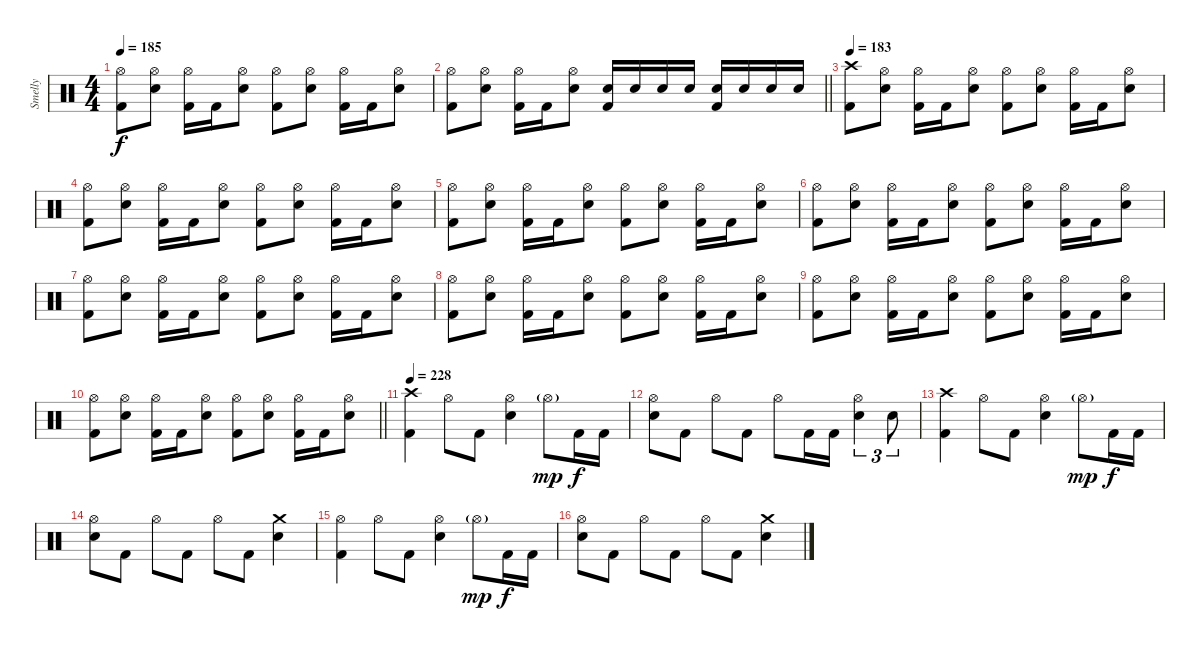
\track ("Smelly" "Smelly") {instrument percussion}
\staff {score}
\articulation defaults
\ts (4 4)
\tempo 185
\clef neutral
\ks c
("Hi-Hat (open)" "Kick (hit) 2").8{dy f} ("Hi-Hat (open)" "Electric Snare (hit)").8 ("Hi-Hat (open)" "Kick (hit) 2").16 "Kick (hit) 2".16 ("Hi-Hat (open)" "Electric Snare (hit)").8 ("Hi-Hat (open)" "Kick (hit) 2").8 ("Hi-Hat (open)" "Electric Snare (hit)").8 ("Hi-Hat (open)" "Kick (hit) 2").16 "Kick (hit) 2".16 ("Hi-Hat (open)" "Electric Snare (hit)").8 |
\barLineRight lightlight
("Hi-Hat (open)" "Kick (hit) 2").8 ("Hi-Hat (open)" "Electric Snare (hit)").8 ("Hi-Hat (open)" "Kick (hit) 2").16 "Kick (hit) 2".16 ("Hi-Hat (open)" "Electric Snare (hit)").8 ("Electric Snare (hit)" "Kick (hit) 2").16 "Electric Snare (hit)".16 "Electric Snare (hit)".16 "Electric Snare (hit)".16 ("Electric Snare (hit)" "Kick (hit) 2").16 "Electric Snare (hit)".16 "Electric Snare (hit)".16 "Electric Snare (hit)".16 |
\section ("" "")
\tempo 183
("Crash high (hit)" "Kick (hit) 2").8 ("Hi-Hat (open)" "Electric Snare (hit)").8 ("Hi-Hat (open)" "Kick (hit) 2").16 "Kick (hit) 2".16 ("Hi-Hat (open)" "Electric Snare (hit)").8 ("Hi-Hat (open)" "Kick (hit) 2").8 ("Hi-Hat (open)" "Electric Snare (hit)").8 ("Hi-Hat (open)" "Kick (hit) 2").16 "Kick (hit) 2".16 ("Hi-Hat (open)" "Electric Snare (hit)").8 |
("Hi-Hat (open)" "Kick (hit) 2").8 ("Hi-Hat (open)" "Electric Snare (hit)").8 ("Hi-Hat (open)" "Kick (hit) 2").16 "Kick (hit) 2".16 ("Hi-Hat (open)" "Electric Snare (hit)").8 ("Hi-Hat (open)" "Kick (hit) 2").8 ("Hi-Hat (open)" "Electric Snare (hit)").8 ("Hi-Hat (open)" "Kick (hit) 2").16 "Kick (hit) 2".16 ("Hi-Hat (open)" "Electric Snare (hit)").8 |
("Hi-Hat (open)" "Kick (hit) 2").8 ("Hi-Hat (open)" "Electric Snare (hit)").8 ("Hi-Hat (open)" "Kick (hit) 2").16 "Kick (hit) 2".16 ("Hi-Hat (open)" "Electric Snare (hit)").8 ("Hi-Hat (open)" "Kick (hit) 2").8 ("Hi-Hat (open)" "Electric Snare (hit)").8 ("Hi-Hat (open)" "Kick (hit) 2").16 "Kick (hit) 2".16 ("Hi-Hat (open)" "Electric Snare (hit)").8 |
("Hi-Hat (open)" "Kick (hit) 2").8 ("Hi-Hat (open)" "Electric Snare (hit)").8 ("Hi-Hat (open)" "Kick (hit) 2").16 "Kick (hit) 2".16 ("Hi-Hat (open)" "Electric Snare (hit)").8 ("Hi-Hat (open)" "Kick (hit) 2").8 ("Hi-Hat (open)" "Electric Snare (hit)").8 ("Hi-Hat (open)" "Kick (hit) 2").16 "Kick (hit) 2".16 ("Hi-Hat (open)" "Electric Snare (hit)").8 |
("Hi-Hat (open)" "Kick (hit) 2").8 ("Hi-Hat (open)" "Electric Snare (hit)").8 ("Hi-Hat (open)" "Kick (hit) 2").16 "Kick (hit) 2".16 ("Hi-Hat (open)" "Electric Snare (hit)").8 ("Hi-Hat (open)" "Kick (hit) 2").8 ("Hi-Hat (open)" "Electric Snare (hit)").8 ("Hi-Hat (open)" "Kick (hit) 2").16 "Kick (hit) 2".16 ("Hi-Hat (open)" "Electric Snare (hit)").8 |
("Hi-Hat (open)" "Kick (hit) 2").8 ("Hi-Hat (open)" "Electric Snare (hit)").8 ("Hi-Hat (open)" "Kick (hit) 2").16 "Kick (hit) 2".16 ("Hi-Hat (open)" "Electric Snare (hit)").8 ("Hi-Hat (open)" "Kick (hit) 2").8 ("Hi-Hat (open)" "Electric Snare (hit)").8 ("Hi-Hat (open)" "Kick (hit) 2").16 "Kick (hit) 2".16 ("Hi-Hat (open)" "Electric Snare (hit)").8 |
("Hi-Hat (open)" "Kick (hit) 2").8 ("Hi-Hat (open)" "Electric Snare (hit)").8 ("Hi-Hat (open)" "Kick (hit) 2").16 "Kick (hit) 2".16 ("Hi-Hat (open)" "Electric Snare (hit)").8 ("Hi-Hat (open)" "Kick (hit) 2").8 ("Hi-Hat (open)" "Electric Snare (hit)").8 ("Hi-Hat (open)" "Kick (hit) 2").16 "Kick (hit) 2".16 ("Hi-Hat (open)" "Electric Snare (hit)").8 |
\barLineRight lightlight
("Hi-Hat (open)" "Kick (hit) 2").8 ("Hi-Hat (open)" "Electric Snare (hit)").8 ("Hi-Hat (open)" "Kick (hit) 2").16 "Kick (hit) 2".16 ("Hi-Hat (open)" "Electric Snare (hit)").8 ("Hi-Hat (open)" "Kick (hit) 2").8 ("Hi-Hat (open)" "Electric Snare (hit)").8 ("Hi-Hat (open)" "Kick (hit) 2").16 "Kick (hit) 2".16 ("Hi-Hat (open)" "Electric Snare (hit)").8 |
\section ("" "")
\tempo 228
("Crash high (hit)" "Kick (hit) 2").4 "Hi-Hat (open)".8 "Kick (hit) 2".8 ("Hi-Hat (open)" "Electric Snare (hit)").4 "Hi-Hat (open)"{g}.8{dy mp} "Kick (hit) 2".16{dy f} "Kick (hit) 2".16 |
("Hi-Hat (open)" "Electric Snare (hit)").8 "Kick (hit) 2".8 "Hi-Hat (open)".8 "Kick (hit) 2".8 "Hi-Hat (open)".8 "Kick (hit) 2".16 "Kick (hit) 2".16 ("Hi-Hat (open)" "Electric Snare (hit)").4{tu (3 2)} "Electric Snare (hit)".8{tu (3 2)} |
("Crash high (hit)" "Kick (hit) 2").4 "Hi-Hat (open)".8 "Kick (hit) 2".8 ("Hi-Hat (open)" "Electric Snare (hit)").4 "Hi-Hat (open)"{g}.8{dy mp} "Kick (hit) 2".16{dy f} "Kick (hit) 2".16 |
("Hi-Hat (open)" "Electric Snare (hit)").8 "Kick (hit) 2".8 "Hi-Hat (open)".8 "Kick (hit) 2".8 "Hi-Hat (open)".8 "Kick (hit) 2".8 ("Crash medium (hit)" "Electric Snare (hit)").4 |
("Hi-Hat (open)" "Kick (hit) 2").4 "Hi-Hat (open)".8 "Kick (hit) 2".8 ("Hi-Hat (open)" "Electric Snare (hit)").4 "Hi-Hat (open)"{g}.8{dy mp} "Kick (hit) 2".16{dy f} "Kick (hit) 2".16 |
("Hi-Hat (open)" "Electric Snare (hit)").8 "Kick (hit) 2".8 "Hi-Hat (open)".8 "Kick (hit) 2".8 "Hi-Hat (open)".8 "Kick (hit) 2".8 ("Crash medium (hit)" "Electric Snare (hit)").4
